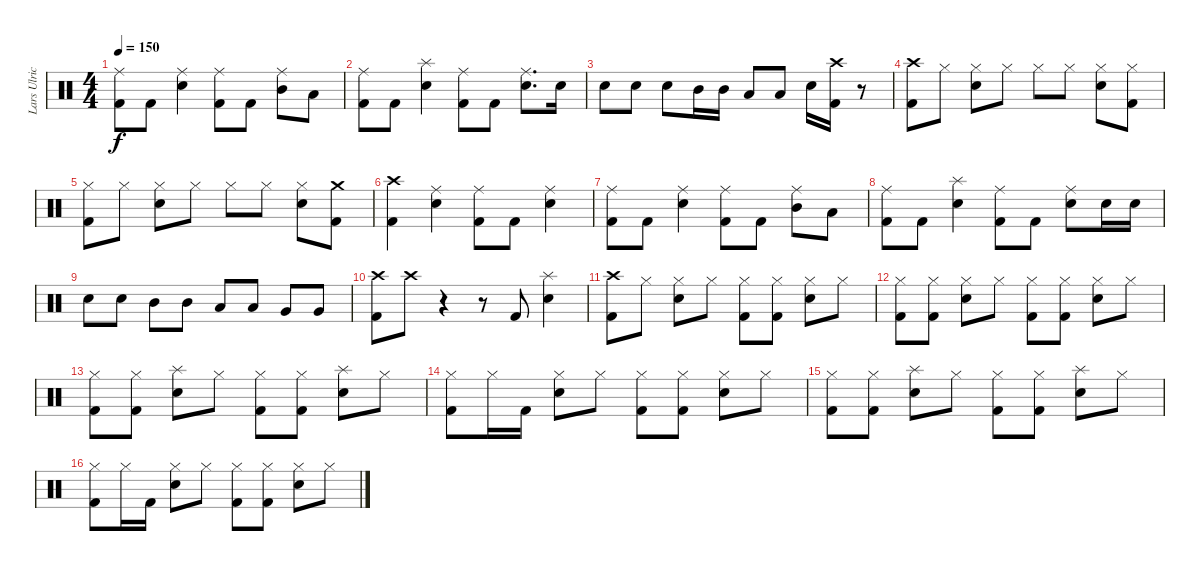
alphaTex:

\track ("Lars Ulrich" "Lars Ulric") {instrument percussion}
\staff {score}
\articulation defaults
\ts (4 4)
\tempo 150
\clef neutral
\ks c
("Ride (middle)" "Kick (hit) 2").8{dy f} "Kick (hit) 2".8 ("Ride (middle)" "Snare (hit) 2").4 ("Ride (middle)" "Kick (hit) 2").8 "Kick (hit) 2".8 ("Ride (middle)" "Mid Tom (hit)").8 "Low Tom (hit)".8 |
("Ride (middle)" "Kick (hit) 2").8 "Kick (hit) 2".8 ("Splash (hit)" "Snare (hit) 2").4 ("Ride (middle)" "Kick (hit) 2").8 "Kick (hit) 2".8 ("Ride (middle)" "Snare (hit) 2").8{d} "Snare (hit) 2".16 |
"Snare (hit) 2".8 "Snare (hit) 2".8 "Snare (hit) 2".8 "Mid Tom (hit)".16 "Mid Tom (hit)".16 "Low Tom (hit)".8 "Low Tom (hit)".8 "Snare (hit) 2".16 ("Crash high (hit)" "Kick (hit) 2").16 r.8 |
("Crash high (hit)" "Kick (hit) 2").8 "Hi-Hat (closed)".8 ("Hi-Hat (closed)" "Snare (hit) 2").8 "Hi-Hat (closed)".8 "Hi-Hat (closed)".8 "Hi-Hat (closed)".8 ("Hi-Hat (closed)" "Snare (hit) 2").8 ("Hi-Hat (closed)" "Kick (hit) 2").8 |
("Hi-Hat (closed)" "Kick (hit) 2").8 "Hi-Hat (closed)".8 ("Hi-Hat (closed)" "Snare (hit) 2").8 "Hi-Hat (closed)".8 "Hi-Hat (closed)".8 "Hi-Hat (closed)".8 ("Hi-Hat (closed)" "Snare (hit) 2").8 ("Crash medium (hit)" "Kick (hit) 2").8 |
("Crash high (hit)" "Kick (hit) 2").4 ("Ride (middle)" "Snare (hit) 2").4 ("Ride (middle)" "Kick (hit) 2").8 "Kick (hit) 2".8 ("Ride (middle)" "Snare (hit) 2").4 |
("Ride (middle)" "Kick (hit) 2").8 "Kick (hit) 2".8 ("Ride (middle)" "Snare (hit) 2").4 ("Ride (middle)" "Kick (hit) 2").8 "Kick (hit) 2".8 ("Ride (middle)" "Mid Tom (hit)").8 "Low Tom (hit)".8 |
("Ride (middle)" "Kick (hit) 2").8 "Kick (hit) 2".8 ("Splash (hit)" "Snare (hit) 2").4 ("Ride (middle)" "Kick (hit) 2").8 "Kick (hit) 2".8 ("Ride (middle)" "Snare (hit) 2").8 "Snare (hit) 2".16 "Snare (hit) 2".16 |
"Snare (hit) 2".8 "Snare (hit) 2".8 "Mid Tom (hit)".8 "Mid Tom (hit)".8 "Low Tom (hit)".8 "Low Tom (hit)".8 "Very Low Tom (hit)".8 "Very Low Tom (hit)".8 |
("Crash high (hit)" "Kick (hit) 2").8 "Crash high (hit)".8{volume 0} r.4 r.8 "Kick (hit) 2".8{volume 16} ("Splash (hit)" "Snare (hit) 2").4 |
("Crash high (hit)" "Kick (hit) 2").8 "Hi-Hat (closed)".8 ("Hi-Hat (closed)" "Snare (hit) 2").8 "Hi-Hat (closed)".8 ("Hi-Hat (closed)" "Kick (hit) 2").8 ("Hi-Hat (closed)" "Kick (hit) 2").8 ("Hi-Hat (closed)" "Snare (hit) 2").8 "Hi-Hat (closed)".8 |
("Hi-Hat (closed)" "Kick (hit) 2").8 ("Hi-Hat (closed)" "Kick (hit) 2").8 ("Hi-Hat (closed)" "Snare (hit) 2").8 "Hi-Hat (closed)".8 ("Hi-Hat (closed)" "Kick (hit) 2").8 ("Hi-Hat (closed)" "Kick (hit) 2").8 ("Hi-Hat (closed)" "Snare (hit) 2").8 "Hi-Hat (closed)".8 |
("Hi-Hat (closed)" "Kick (hit) 2").8 ("Hi-Hat (closed)" "Kick (hit) 2").8 ("Splash (hit)" "Snare (hit) 2").8 "Hi-Hat (closed)".8 ("Hi-Hat (closed)" "Kick (hit) 2").8 ("Hi-Hat (closed)" "Kick (hit) 2").8 ("Splash (hit)" "Snare (hit) 2").8 "Hi-Hat (closed)".8 |
("Hi-Hat (closed)" "Kick (hit) 2").8 "Hi-Hat (closed)".16 "Kick (hit) 2".16 ("Hi-Hat (closed)" "Snare (hit) 2").8 "Hi-Hat (closed)".8 ("Hi-Hat (closed)" "Kick (hit) 2").8 ("Hi-Hat (closed)" "Kick (hit) 2").8 ("Hi-Hat (closed)" "Snare (hit) 2").8 "Hi-Hat (closed)".8 |
("Hi-Hat (closed)" "Kick (hit) 2").8 ("Hi-Hat (closed)" "Kick (hit) 2").8 ("Splash (hit)" "Snare (hit) 2").8 "Hi-Hat (closed)".8 ("Hi-Hat (closed)" "Kick (hit) 2").8 ("Hi-Hat (closed)" "Kick (hit) 2").8 ("Splash (hit)" "Snare (hit) 2").8 "Hi-Hat (closed)".8 |
("Hi-Hat (closed)" "Kick (hit) 2").8 "Hi-Hat (closed)".16 "Kick (hit) 2".16 ("Hi-Hat (closed)" "Snare (hit) 2").8 "Hi-Hat (closed)".8 ("Hi-Hat (closed)" "Kick (hit) 2").8 ("Hi-Hat (closed)" "Kick (hit) 2").8 ("Hi-Hat (closed)" "Snare (hit) 2").8 "Hi-Hat (closed)".8
